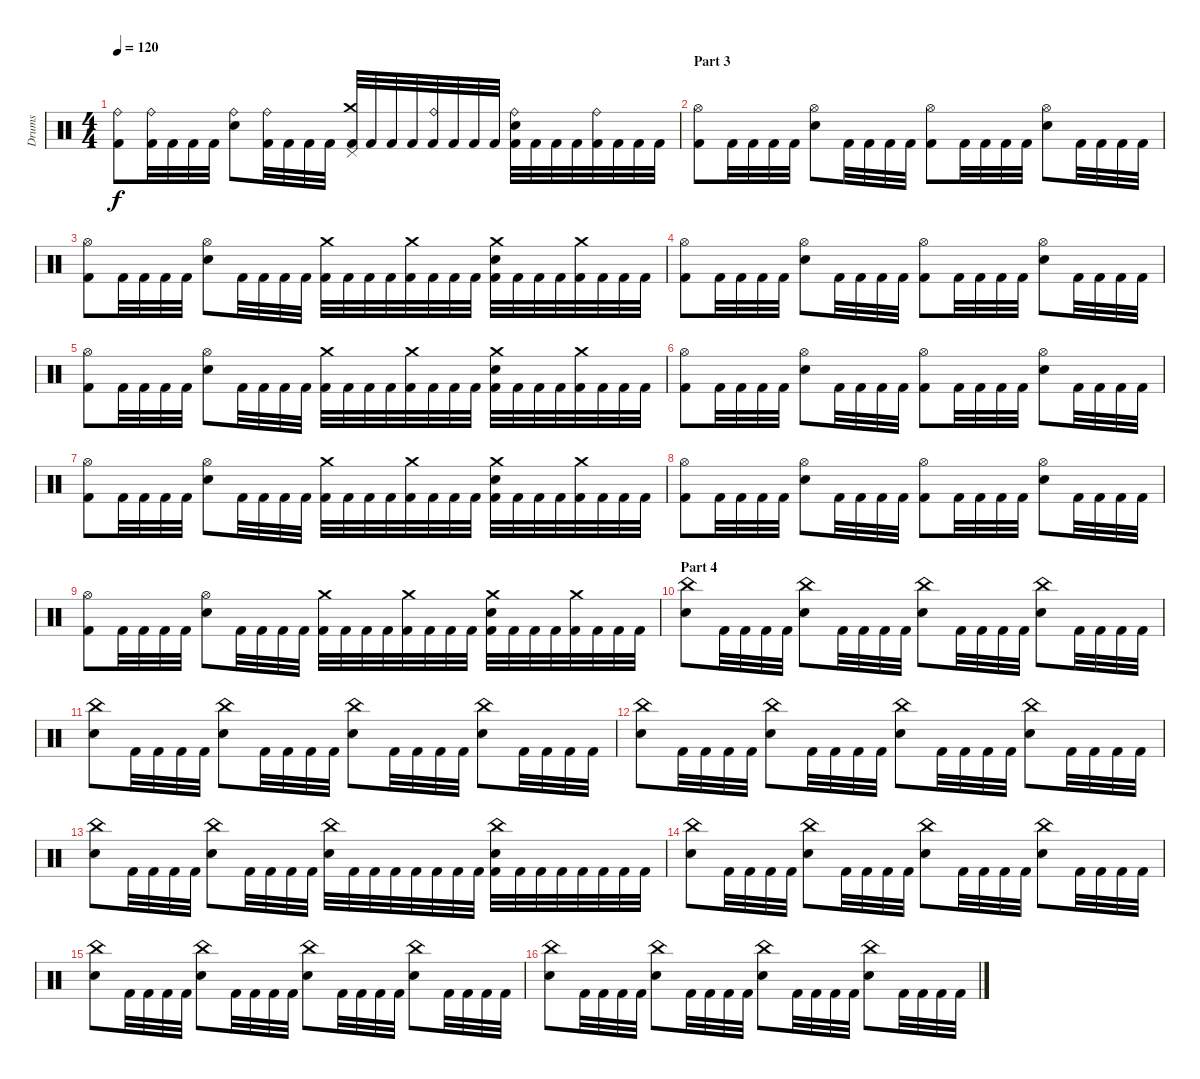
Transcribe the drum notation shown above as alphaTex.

\track ("Drums" "Drums") {instrument percussion}
\staff {score}
\articulation defaults
\ts (4 4)
\tempo 120
\clef neutral
\ks c
("Ride (bell)" "Kick (hit) 2").8{dy f} ("Ride (bell)" "Kick (hit) 2").32 "Kick (hit) 2".32 "Kick (hit) 2".32 "Kick (hit) 2".32 ("Ride (bell)" "Electric Snare (hit)").8 ("Ride (bell)" "Kick (hit) 2").32 "Kick (hit) 2".32 "Kick (hit) 2".32 "Kick (hit) 2".32 ("Crash medium (hit)" "Pedal Hi-Hat (hit)" "Kick (hit) 2").32 "Kick (hit) 2".32 "Kick (hit) 2".32 "Kick (hit) 2".32 ("Ride (bell)" "Kick (hit) 2").32 "Kick (hit) 2".32 "Kick (hit) 2".32 "Kick (hit) 2".32 ("Ride (bell)" "Electric Snare (hit)" "Kick (hit) 2").32 "Kick (hit) 2".32 "Kick (hit) 2".32 "Kick (hit) 2".32 ("Ride (bell)" "Kick (hit) 2").32 "Kick (hit) 2".32 "Kick (hit) 2".32 "Kick (hit) 2".32 |
\section ("" "Part 3")
("Hi-Hat (open)" "Kick (hit) 2").8 "Kick (hit) 2".32 "Kick (hit) 2".32 "Kick (hit) 2".32 "Kick (hit) 2".32 ("Hi-Hat (open)" "Electric Snare (hit)").8 "Kick (hit) 2".32 "Kick (hit) 2".32 "Kick (hit) 2".32 "Kick (hit) 2".32 ("Hi-Hat (open)" "Kick (hit) 2").8 "Kick (hit) 2".32 "Kick (hit) 2".32 "Kick (hit) 2".32 "Kick (hit) 2".32 ("Hi-Hat (open)" "Electric Snare (hit)").8 "Kick (hit) 2".32 "Kick (hit) 2".32 "Kick (hit) 2".32 "Kick (hit) 2".32 |
("Hi-Hat (open)" "Kick (hit) 2").8 "Kick (hit) 2".32 "Kick (hit) 2".32 "Kick (hit) 2".32 "Kick (hit) 2".32 ("Hi-Hat (open)" "Electric Snare (hit)").8 "Kick (hit) 2".32 "Kick (hit) 2".32 "Kick (hit) 2".32 "Kick (hit) 2".32 ("Crash medium (hit)" "Kick (hit) 2").32 "Kick (hit) 2".32 "Kick (hit) 2".32 "Kick (hit) 2".32 ("Crash medium (hit)" "Kick (hit) 2").32 "Kick (hit) 2".32 "Kick (hit) 2".32 "Kick (hit) 2".32 ("Crash medium (hit)" "Electric Snare (hit)" "Kick (hit) 2").32 "Kick (hit) 2".32 "Kick (hit) 2".32 "Kick (hit) 2".32 ("Crash medium (hit)" "Kick (hit) 2").32 "Kick (hit) 2".32 "Kick (hit) 2".32 "Kick (hit) 2".32 |
("Hi-Hat (open)" "Kick (hit) 2").8 "Kick (hit) 2".32 "Kick (hit) 2".32 "Kick (hit) 2".32 "Kick (hit) 2".32 ("Hi-Hat (open)" "Electric Snare (hit)").8 "Kick (hit) 2".32 "Kick (hit) 2".32 "Kick (hit) 2".32 "Kick (hit) 2".32 ("Hi-Hat (open)" "Kick (hit) 2").8 "Kick (hit) 2".32 "Kick (hit) 2".32 "Kick (hit) 2".32 "Kick (hit) 2".32 ("Hi-Hat (open)" "Electric Snare (hit)").8 "Kick (hit) 2".32 "Kick (hit) 2".32 "Kick (hit) 2".32 "Kick (hit) 2".32 |
("Hi-Hat (open)" "Kick (hit) 2").8 "Kick (hit) 2".32 "Kick (hit) 2".32 "Kick (hit) 2".32 "Kick (hit) 2".32 ("Hi-Hat (open)" "Electric Snare (hit)").8 "Kick (hit) 2".32 "Kick (hit) 2".32 "Kick (hit) 2".32 "Kick (hit) 2".32 ("Crash medium (hit)" "Kick (hit) 2").32 "Kick (hit) 2".32 "Kick (hit) 2".32 "Kick (hit) 2".32 ("Crash medium (hit)" "Kick (hit) 2").32 "Kick (hit) 2".32 "Kick (hit) 2".32 "Kick (hit) 2".32 ("Crash medium (hit)" "Electric Snare (hit)" "Kick (hit) 2").32 "Kick (hit) 2".32 "Kick (hit) 2".32 "Kick (hit) 2".32 ("Crash medium (hit)" "Kick (hit) 2").32 "Kick (hit) 2".32 "Kick (hit) 2".32 "Kick (hit) 2".32 |
("Hi-Hat (open)" "Kick (hit) 2").8 "Kick (hit) 2".32 "Kick (hit) 2".32 "Kick (hit) 2".32 "Kick (hit) 2".32 ("Hi-Hat (open)" "Electric Snare (hit)").8 "Kick (hit) 2".32 "Kick (hit) 2".32 "Kick (hit) 2".32 "Kick (hit) 2".32 ("Hi-Hat (open)" "Kick (hit) 2").8 "Kick (hit) 2".32 "Kick (hit) 2".32 "Kick (hit) 2".32 "Kick (hit) 2".32 ("Hi-Hat (open)" "Electric Snare (hit)").8 "Kick (hit) 2".32 "Kick (hit) 2".32 "Kick (hit) 2".32 "Kick (hit) 2".32 |
("Hi-Hat (open)" "Kick (hit) 2").8 "Kick (hit) 2".32 "Kick (hit) 2".32 "Kick (hit) 2".32 "Kick (hit) 2".32 ("Hi-Hat (open)" "Electric Snare (hit)").8 "Kick (hit) 2".32 "Kick (hit) 2".32 "Kick (hit) 2".32 "Kick (hit) 2".32 ("Crash medium (hit)" "Kick (hit) 2").32 "Kick (hit) 2".32 "Kick (hit) 2".32 "Kick (hit) 2".32 ("Crash medium (hit)" "Kick (hit) 2").32 "Kick (hit) 2".32 "Kick (hit) 2".32 "Kick (hit) 2".32 ("Crash medium (hit)" "Electric Snare (hit)" "Kick (hit) 2").32 "Kick (hit) 2".32 "Kick (hit) 2".32 "Kick (hit) 2".32 ("Crash medium (hit)" "Kick (hit) 2").32 "Kick (hit) 2".32 "Kick (hit) 2".32 "Kick (hit) 2".32 |
("Hi-Hat (open)" "Kick (hit) 2").8 "Kick (hit) 2".32 "Kick (hit) 2".32 "Kick (hit) 2".32 "Kick (hit) 2".32 ("Hi-Hat (open)" "Electric Snare (hit)").8 "Kick (hit) 2".32 "Kick (hit) 2".32 "Kick (hit) 2".32 "Kick (hit) 2".32 ("Hi-Hat (open)" "Kick (hit) 2").8 "Kick (hit) 2".32 "Kick (hit) 2".32 "Kick (hit) 2".32 "Kick (hit) 2".32 ("Hi-Hat (open)" "Electric Snare (hit)").8 "Kick (hit) 2".32 "Kick (hit) 2".32 "Kick (hit) 2".32 "Kick (hit) 2".32 |
("Hi-Hat (open)" "Kick (hit) 2").8 "Kick (hit) 2".32 "Kick (hit) 2".32 "Kick (hit) 2".32 "Kick (hit) 2".32 ("Hi-Hat (open)" "Electric Snare (hit)").8 "Kick (hit) 2".32 "Kick (hit) 2".32 "Kick (hit) 2".32 "Kick (hit) 2".32 ("Crash medium (hit)" "Kick (hit) 2").32 "Kick (hit) 2".32 "Kick (hit) 2".32 "Kick (hit) 2".32 ("Crash medium (hit)" "Kick (hit) 2").32 "Kick (hit) 2".32 "Kick (hit) 2".32 "Kick (hit) 2".32 ("Crash medium (hit)" "Electric Snare (hit)" "Kick (hit) 2").32 "Kick (hit) 2".32 "Kick (hit) 2".32 "Kick (hit) 2".32 ("Crash medium (hit)" "Kick (hit) 2").32 "Kick (hit) 2".32 "Kick (hit) 2".32 "Kick (hit) 2".32 |
\section ("" "Part 4")
("China (hit)" "Electric Snare (hit)").8 "Kick (hit) 2".32 "Kick (hit) 2".32 "Kick (hit) 2".32 "Kick (hit) 2".32 ("China (hit)" "Electric Snare (hit)").8 "Kick (hit) 2".32 "Kick (hit) 2".32 "Kick (hit) 2".32 "Kick (hit) 2".32 ("China (hit)" "Electric Snare (hit)").8 "Kick (hit) 2".32 "Kick (hit) 2".32 "Kick (hit) 2".32 "Kick (hit) 2".32 ("China (hit)" "Electric Snare (hit)").8 "Kick (hit) 2".32 "Kick (hit) 2".32 "Kick (hit) 2".32 "Kick (hit) 2".32 |
("China (hit)" "Electric Snare (hit)").8 "Kick (hit) 2".32 "Kick (hit) 2".32 "Kick (hit) 2".32 "Kick (hit) 2".32 ("China (hit)" "Electric Snare (hit)").8 "Kick (hit) 2".32 "Kick (hit) 2".32 "Kick (hit) 2".32 "Kick (hit) 2".32 ("China (hit)" "Electric Snare (hit)").8 "Kick (hit) 2".32 "Kick (hit) 2".32 "Kick (hit) 2".32 "Kick (hit) 2".32 ("China (hit)" "Electric Snare (hit)").8 "Kick (hit) 2".32 "Kick (hit) 2".32 "Kick (hit) 2".32 "Kick (hit) 2".32 |
("China (hit)" "Electric Snare (hit)").8 "Kick (hit) 2".32 "Kick (hit) 2".32 "Kick (hit) 2".32 "Kick (hit) 2".32 ("China (hit)" "Electric Snare (hit)").8 "Kick (hit) 2".32 "Kick (hit) 2".32 "Kick (hit) 2".32 "Kick (hit) 2".32 ("China (hit)" "Electric Snare (hit)").8 "Kick (hit) 2".32 "Kick (hit) 2".32 "Kick (hit) 2".32 "Kick (hit) 2".32 ("China (hit)" "Electric Snare (hit)").8 "Kick (hit) 2".32 "Kick (hit) 2".32 "Kick (hit) 2".32 "Kick (hit) 2".32 |
("China (hit)" "Electric Snare (hit)").8 "Kick (hit) 2".32 "Kick (hit) 2".32 "Kick (hit) 2".32 "Kick (hit) 2".32 ("China (hit)" "Electric Snare (hit)").8 "Kick (hit) 2".32 "Kick (hit) 2".32 "Kick (hit) 2".32 "Kick (hit) 2".32 ("China (hit)" "Electric Snare (hit)").32 "Kick (hit) 2".32 "Kick (hit) 2".32 "Kick (hit) 2".32 "Kick (hit) 2".32 "Kick (hit) 2".32 "Kick (hit) 2".32 "Kick (hit) 2".32 ("China (hit)" "Electric Snare (hit)" "Kick (hit) 2").32 "Kick (hit) 2".32 "Kick (hit) 2".32 "Kick (hit) 2".32 "Kick (hit) 2".32 "Kick (hit) 2".32 "Kick (hit) 2".32 "Kick (hit) 2".32 |
("China (hit)" "Electric Snare (hit)").8 "Kick (hit) 2".32 "Kick (hit) 2".32 "Kick (hit) 2".32 "Kick (hit) 2".32 ("China (hit)" "Electric Snare (hit)").8 "Kick (hit) 2".32 "Kick (hit) 2".32 "Kick (hit) 2".32 "Kick (hit) 2".32 ("China (hit)" "Electric Snare (hit)").8 "Kick (hit) 2".32 "Kick (hit) 2".32 "Kick (hit) 2".32 "Kick (hit) 2".32 ("China (hit)" "Electric Snare (hit)").8 "Kick (hit) 2".32 "Kick (hit) 2".32 "Kick (hit) 2".32 "Kick (hit) 2".32 |
("China (hit)" "Electric Snare (hit)").8 "Kick (hit) 2".32 "Kick (hit) 2".32 "Kick (hit) 2".32 "Kick (hit) 2".32 ("China (hit)" "Electric Snare (hit)").8 "Kick (hit) 2".32 "Kick (hit) 2".32 "Kick (hit) 2".32 "Kick (hit) 2".32 ("China (hit)" "Electric Snare (hit)").8 "Kick (hit) 2".32 "Kick (hit) 2".32 "Kick (hit) 2".32 "Kick (hit) 2".32 ("China (hit)" "Electric Snare (hit)").8 "Kick (hit) 2".32 "Kick (hit) 2".32 "Kick (hit) 2".32 "Kick (hit) 2".32 |
("China (hit)" "Electric Snare (hit)").8 "Kick (hit) 2".32 "Kick (hit) 2".32 "Kick (hit) 2".32 "Kick (hit) 2".32 ("China (hit)" "Electric Snare (hit)").8 "Kick (hit) 2".32 "Kick (hit) 2".32 "Kick (hit) 2".32 "Kick (hit) 2".32 ("China (hit)" "Electric Snare (hit)").8 "Kick (hit) 2".32 "Kick (hit) 2".32 "Kick (hit) 2".32 "Kick (hit) 2".32 ("China (hit)" "Electric Snare (hit)").8 "Kick (hit) 2".32 "Kick (hit) 2".32 "Kick (hit) 2".32 "Kick (hit) 2".32
